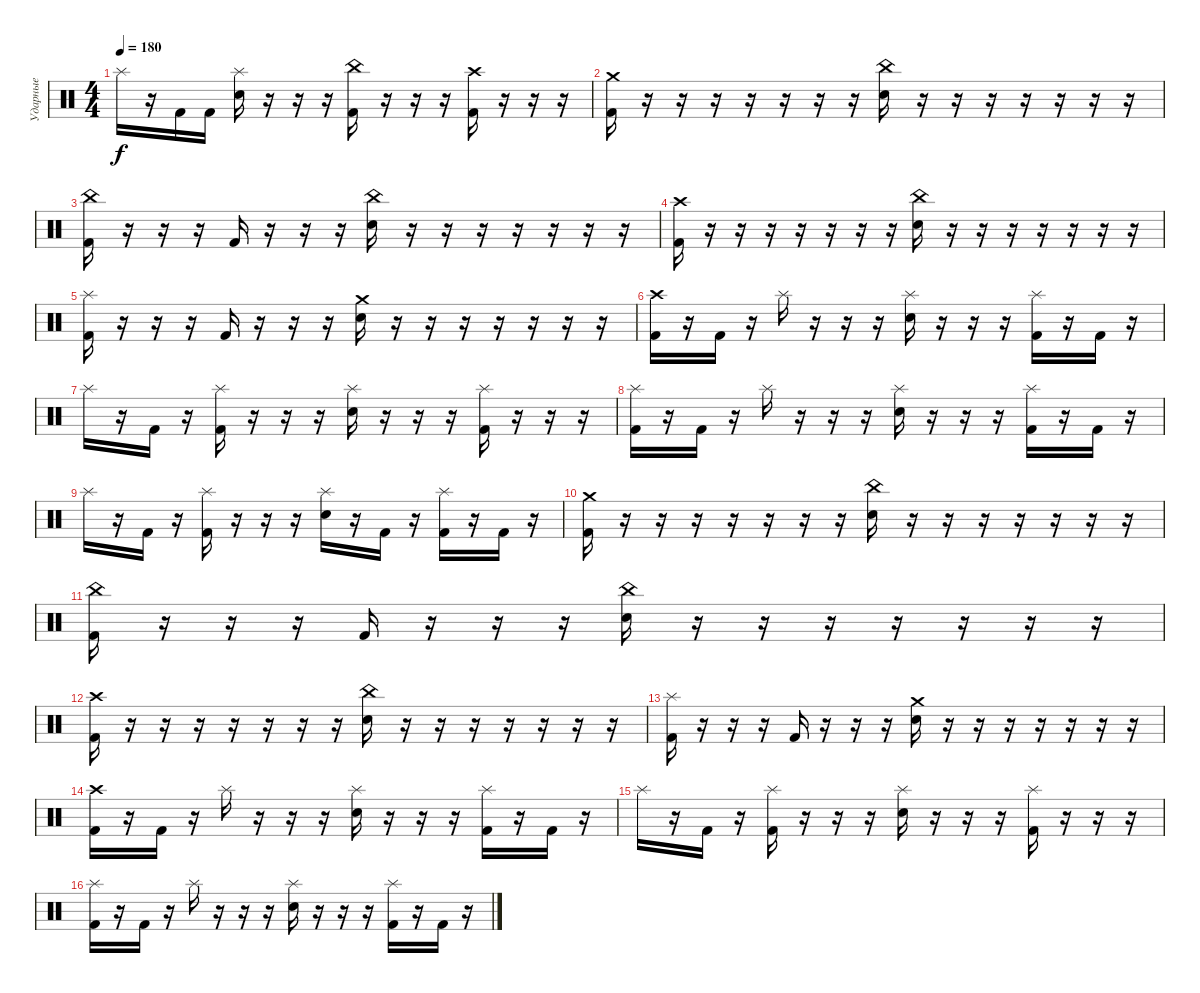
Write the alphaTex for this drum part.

\track ("Ударные" "Ударные") {instrument percussion}
\staff {score}
\articulation defaults
\ts (4 4)
\tempo 180
\clef neutral
\ks c "Splash (hit)".16{dy f}
r.16 "Kick (hit) 2".16 "Kick (hit) 2".16 ("Electric Snare (hit)" "Splash (hit)").16 r.16 r.16 r.16 ("Kick (hit) 2" "China (hit)").16 r.16 r.16 r.16 ("Kick (hit) 2" "Crash high (hit)").16 r.16 r.16 r.16 |
("Kick (hit) 2" "Crash medium (hit)").16 r.16 r.16 r.16 r.16 r.16 r.16 r.16 ("Electric Snare (hit)" "China (hit)").16 r.16 r.16 r.16 r.16 r.16 r.16 r.16 |
("Kick (hit) 2" "China (hit)").16 r.16 r.16 r.16 "Kick (hit) 2".16 r.16 r.16 r.16 ("Electric Snare (hit)" "China (hit)").16 r.16 r.16 r.16 r.16 r.16 r.16 r.16 |
("Kick (hit) 2" "Crash high (hit)").16 r.16 r.16 r.16 r.16 r.16 r.16 r.16 ("Electric Snare (hit)" "China (hit)").16 r.16 r.16 r.16 r.16 r.16 r.16 r.16 |
("Kick (hit) 2" "Splash (hit)").16 r.16 r.16 r.16 "Kick (hit) 2".16 r.16 r.16 r.16 ("Electric Snare (hit)" "Crash medium (hit)").16 r.16 r.16 r.16 r.16 r.16 r.16 r.16 |
("Kick (hit) 2" "Crash high (hit)").16 r.16 "Kick (hit) 2".16 r.16 "Splash (hit)".16 r.16 r.16 r.16 ("Electric Snare (hit)" "Splash (hit)").16 r.16 r.16 r.16 ("Kick (hit) 2" "Splash (hit)").16 r.16 "Kick (hit) 2".16 r.16 |
"Splash (hit)".16 r.16 "Kick (hit) 2".16 r.16 ("Kick (hit) 2" "Splash (hit)").16 r.16 r.16 r.16 ("Electric Snare (hit)" "Splash (hit)").16 r.16 r.16 r.16 ("Kick (hit) 2" "Splash (hit)").16 r.16 r.16 r.16 |
("Kick (hit) 2" "Splash (hit)").16 r.16 "Kick (hit) 2".16 r.16 "Splash (hit)".16 r.16 r.16 r.16 ("Electric Snare (hit)" "Splash (hit)").16 r.16 r.16 r.16 ("Kick (hit) 2" "Splash (hit)").16 r.16 "Kick (hit) 2".16 r.16 |
"Splash (hit)".16 r.16 "Kick (hit) 2".16 r.16 ("Kick (hit) 2" "Splash (hit)").16 r.16 r.16 r.16 ("Electric Snare (hit)" "Splash (hit)").16 r.16 "Kick (hit) 2".16 r.16 ("Kick (hit) 2" "Splash (hit)").16 r.16 "Kick (hit) 2".16 r.16 |
("Kick (hit) 2" "Crash medium (hit)").16 r.16 r.16 r.16 r.16 r.16 r.16 r.16 ("Electric Snare (hit)" "China (hit)").16 r.16 r.16 r.16 r.16 r.16 r.16 r.16 |
("Kick (hit) 2" "China (hit)").16 r.16 r.16 r.16 "Kick (hit) 2".16 r.16 r.16 r.16 ("Electric Snare (hit)" "China (hit)").16 r.16 r.16 r.16 r.16 r.16 r.16 r.16 |
("Kick (hit) 2" "Crash high (hit)").16 r.16 r.16 r.16 r.16 r.16 r.16 r.16 ("Electric Snare (hit)" "China (hit)").16 r.16 r.16 r.16 r.16 r.16 r.16 r.16 |
("Kick (hit) 2" "Splash (hit)").16 r.16 r.16 r.16 "Kick (hit) 2".16 r.16 r.16 r.16 ("Electric Snare (hit)" "Crash medium (hit)").16 r.16 r.16 r.16 r.16 r.16 r.16 r.16 |
("Kick (hit) 2" "Crash high (hit)").16 r.16 "Kick (hit) 2".16 r.16 "Splash (hit)".16 r.16 r.16 r.16 ("Electric Snare (hit)" "Splash (hit)").16 r.16 r.16 r.16 ("Kick (hit) 2" "Splash (hit)").16 r.16 "Kick (hit) 2".16 r.16 |
"Splash (hit)".16 r.16 "Kick (hit) 2".16 r.16 ("Kick (hit) 2" "Splash (hit)").16 r.16 r.16 r.16 ("Electric Snare (hit)" "Splash (hit)").16 r.16 r.16 r.16 ("Kick (hit) 2" "Splash (hit)").16 r.16 r.16 r.16 |
("Kick (hit) 2" "Splash (hit)").16 r.16 "Kick (hit) 2".16 r.16 "Splash (hit)".16 r.16 r.16 r.16 ("Electric Snare (hit)" "Splash (hit)").16 r.16 r.16 r.16 ("Kick (hit) 2" "Splash (hit)").16 r.16 "Kick (hit) 2".16 r.16
